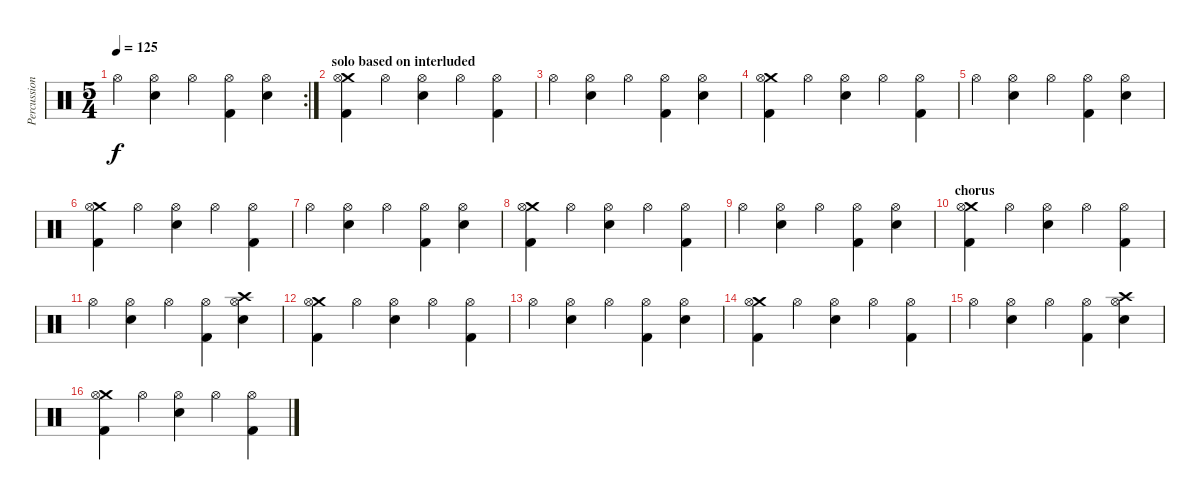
\track ("Percussion" "Percussion") {instrument percussion}
\staff {score}
\articulation defaults
\rc 2
\ts (5 4)
\tempo 125
\clef neutral
\ks c "Hi-Hat (open)".4{dy f}
("Hi-Hat (open)" "Electric Snare (hit)").4 "Hi-Hat (open)".4 ("Hi-Hat (open)" "Kick (hit) 2").4 ("Hi-Hat (open)" "Electric Snare (hit)").4 |
\section ("" "solo based on interluded")
("Crash medium (hit)" "Hi-Hat (open)" "Kick (hit) 2").4 "Hi-Hat (open)".4 ("Hi-Hat (open)" "Electric Snare (hit)").4 "Hi-Hat (open)".4 ("Hi-Hat (open)" "Kick (hit) 2").4 |
"Hi-Hat (open)".4 ("Hi-Hat (open)" "Electric Snare (hit)").4 "Hi-Hat (open)".4 ("Hi-Hat (open)" "Kick (hit) 2").4 ("Hi-Hat (open)" "Electric Snare (hit)").4 |
("Crash medium (hit)" "Hi-Hat (open)" "Kick (hit) 2").4 "Hi-Hat (open)".4 ("Hi-Hat (open)" "Electric Snare (hit)").4 "Hi-Hat (open)".4 ("Hi-Hat (open)" "Kick (hit) 2").4 |
"Hi-Hat (open)".4 ("Hi-Hat (open)" "Electric Snare (hit)").4 "Hi-Hat (open)".4 ("Hi-Hat (open)" "Kick (hit) 2").4 ("Hi-Hat (open)" "Electric Snare (hit)").4 |
("Crash medium (hit)" "Hi-Hat (open)" "Kick (hit) 2").4 "Hi-Hat (open)".4 ("Hi-Hat (open)" "Electric Snare (hit)").4 "Hi-Hat (open)".4 ("Hi-Hat (open)" "Kick (hit) 2").4 |
"Hi-Hat (open)".4 ("Hi-Hat (open)" "Electric Snare (hit)").4 "Hi-Hat (open)".4 ("Hi-Hat (open)" "Kick (hit) 2").4 ("Hi-Hat (open)" "Electric Snare (hit)").4 |
("Crash medium (hit)" "Hi-Hat (open)" "Kick (hit) 2").4 "Hi-Hat (open)".4 ("Hi-Hat (open)" "Electric Snare (hit)").4 "Hi-Hat (open)".4 ("Hi-Hat (open)" "Kick (hit) 2").4 |
"Hi-Hat (open)".4 ("Hi-Hat (open)" "Electric Snare (hit)").4 "Hi-Hat (open)".4 ("Hi-Hat (open)" "Kick (hit) 2").4 ("Hi-Hat (open)" "Electric Snare (hit)").4 |
\section ("" "chorus")
("Crash medium (hit)" "Hi-Hat (open)" "Kick (hit) 2").4 "Hi-Hat (open)".4 ("Hi-Hat (open)" "Electric Snare (hit)").4 "Hi-Hat (open)".4 ("Hi-Hat (open)" "Kick (hit) 2").4 |
"Hi-Hat (open)".4 ("Hi-Hat (open)" "Electric Snare (hit)").4 "Hi-Hat (open)".4 ("Hi-Hat (open)" "Kick (hit) 2").4 ("Crash high (hit)" "Hi-Hat (open)" "Electric Snare (hit)").4 |
("Crash medium (hit)" "Hi-Hat (open)" "Kick (hit) 2").4 "Hi-Hat (open)".4 ("Hi-Hat (open)" "Electric Snare (hit)").4 "Hi-Hat (open)".4 ("Hi-Hat (open)" "Kick (hit) 2").4 |
"Hi-Hat (open)".4 ("Hi-Hat (open)" "Electric Snare (hit)").4 "Hi-Hat (open)".4 ("Hi-Hat (open)" "Kick (hit) 2").4 ("Hi-Hat (open)" "Electric Snare (hit)").4 |
("Crash medium (hit)" "Hi-Hat (open)" "Kick (hit) 2").4 "Hi-Hat (open)".4 ("Hi-Hat (open)" "Electric Snare (hit)").4 "Hi-Hat (open)".4 ("Hi-Hat (open)" "Kick (hit) 2").4 |
"Hi-Hat (open)".4 ("Hi-Hat (open)" "Electric Snare (hit)").4 "Hi-Hat (open)".4 ("Hi-Hat (open)" "Kick (hit) 2").4 ("Crash high (hit)" "Hi-Hat (open)" "Electric Snare (hit)").4 |
("Crash medium (hit)" "Hi-Hat (open)" "Kick (hit) 2").4 "Hi-Hat (open)".4 ("Hi-Hat (open)" "Electric Snare (hit)").4 "Hi-Hat (open)".4 ("Hi-Hat (open)" "Kick (hit) 2").4
